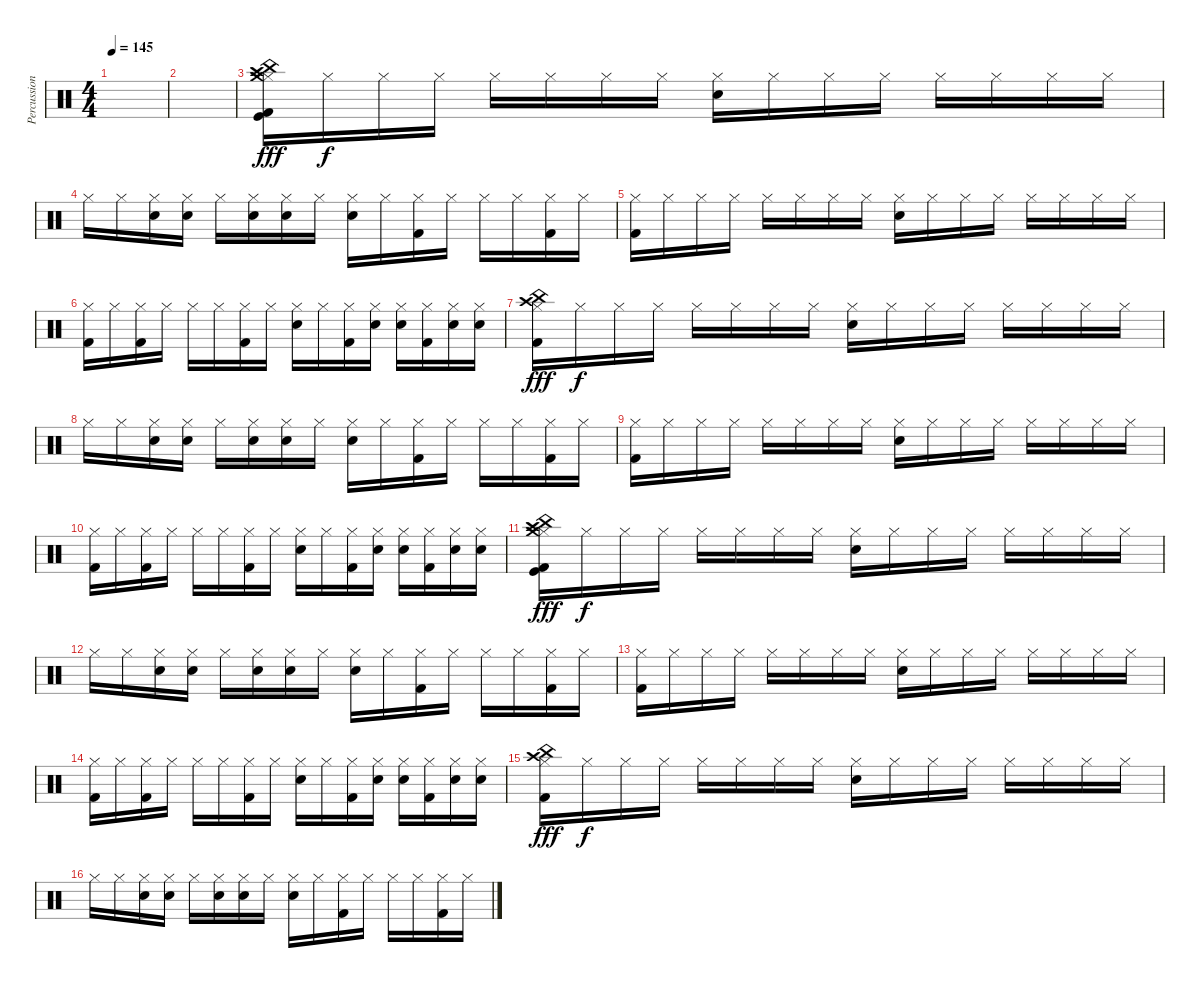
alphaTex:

\track ("Percussions" "Percussion") {instrument percussion}
\staff {score}
\articulation defaults
\ts (4 4)
\tempo 145
\clef neutral
\ks c
|
|
("Crash high (hit)" "Hi-Hat (closed)" "Crash medium (hit)" "China (hit)" "Kick (hit)" "Kick (hit) 2").16{dy fff volume 16} "Hi-Hat (closed)".16{dy f} "Hi-Hat (closed)".16 "Hi-Hat (closed)".16 "Hi-Hat (closed)".16 "Hi-Hat (closed)".16 "Hi-Hat (closed)".16 "Hi-Hat (closed)".16 ("Hi-Hat (closed)" "Snare (hit) 2").16 "Hi-Hat (closed)".16 "Hi-Hat (closed)".16 "Hi-Hat (closed)".16 "Hi-Hat (closed)".16 "Hi-Hat (closed)".16 "Hi-Hat (closed)".16 "Hi-Hat (closed)".16 |
"Hi-Hat (closed)".16 "Hi-Hat (closed)".16 ("Hi-Hat (closed)" "Snare (hit) 2").16 ("Hi-Hat (closed)" "Snare (hit) 2").16 "Hi-Hat (closed)".16 ("Hi-Hat (closed)" "Snare (hit) 2").16 ("Hi-Hat (closed)" "Snare (hit) 2").16 "Hi-Hat (closed)".16 ("Hi-Hat (closed)" "Snare (hit) 2").16 "Hi-Hat (closed)".16 ("Hi-Hat (closed)" "Kick (hit) 2").16 "Hi-Hat (closed)".16 "Hi-Hat (closed)".16 "Hi-Hat (closed)".16 ("Hi-Hat (closed)" "Kick (hit) 2").16 "Hi-Hat (closed)".16 |
("Hi-Hat (closed)" "Kick (hit) 2").16 "Hi-Hat (closed)".16 "Hi-Hat (closed)".16 "Hi-Hat (closed)".16 "Hi-Hat (closed)".16 "Hi-Hat (closed)".16 "Hi-Hat (closed)".16 "Hi-Hat (closed)".16 ("Hi-Hat (closed)" "Snare (hit) 2").16 "Hi-Hat (closed)".16 "Hi-Hat (closed)".16 "Hi-Hat (closed)".16 "Hi-Hat (closed)".16 "Hi-Hat (closed)".16 "Hi-Hat (closed)".16 "Hi-Hat (closed)".16 |
("Hi-Hat (closed)" "Kick (hit) 2").16 "Hi-Hat (closed)".16 ("Hi-Hat (closed)" "Kick (hit) 2").16 "Hi-Hat (closed)".16 "Hi-Hat (closed)".16 "Hi-Hat (closed)".16 ("Hi-Hat (closed)" "Kick (hit) 2").16 "Hi-Hat (closed)".16 ("Hi-Hat (closed)" "Snare (hit) 2").16 "Hi-Hat (closed)".16 ("Hi-Hat (closed)" "Kick (hit) 2").16 ("Hi-Hat (closed)" "Snare (hit) 2").16 ("Hi-Hat (closed)" "Snare (hit) 2").16 ("Hi-Hat (closed)" "Kick (hit) 2").16 ("Hi-Hat (closed)" "Snare (hit) 2").16 ("Hi-Hat (closed)" "Snare (hit) 2").16 |
("Crash high (hit)" "Hi-Hat (closed)" "China (hit)" "Kick (hit) 2").16{dy fff} "Hi-Hat (closed)".16{dy f} "Hi-Hat (closed)".16 "Hi-Hat (closed)".16 "Hi-Hat (closed)".16 "Hi-Hat (closed)".16 "Hi-Hat (closed)".16 "Hi-Hat (closed)".16 ("Hi-Hat (closed)" "Snare (hit) 2").16 "Hi-Hat (closed)".16 "Hi-Hat (closed)".16 "Hi-Hat (closed)".16 "Hi-Hat (closed)".16 "Hi-Hat (closed)".16 "Hi-Hat (closed)".16 "Hi-Hat (closed)".16 |
"Hi-Hat (closed)".16 "Hi-Hat (closed)".16 ("Hi-Hat (closed)" "Snare (hit) 2").16 ("Hi-Hat (closed)" "Snare (hit) 2").16 "Hi-Hat (closed)".16 ("Hi-Hat (closed)" "Snare (hit) 2").16 ("Hi-Hat (closed)" "Snare (hit) 2").16 "Hi-Hat (closed)".16 ("Hi-Hat (closed)" "Snare (hit) 2").16 "Hi-Hat (closed)".16 ("Hi-Hat (closed)" "Kick (hit) 2").16 "Hi-Hat (closed)".16 "Hi-Hat (closed)".16 "Hi-Hat (closed)".16 ("Hi-Hat (closed)" "Kick (hit) 2").16 "Hi-Hat (closed)".16 |
("Hi-Hat (closed)" "Kick (hit) 2").16 "Hi-Hat (closed)".16 "Hi-Hat (closed)".16 "Hi-Hat (closed)".16 "Hi-Hat (closed)".16 "Hi-Hat (closed)".16 "Hi-Hat (closed)".16 "Hi-Hat (closed)".16 ("Hi-Hat (closed)" "Snare (hit) 2").16 "Hi-Hat (closed)".16 "Hi-Hat (closed)".16 "Hi-Hat (closed)".16 "Hi-Hat (closed)".16 "Hi-Hat (closed)".16 "Hi-Hat (closed)".16 "Hi-Hat (closed)".16 |
("Hi-Hat (closed)" "Kick (hit) 2").16 "Hi-Hat (closed)".16 ("Hi-Hat (closed)" "Kick (hit) 2").16 "Hi-Hat (closed)".16 "Hi-Hat (closed)".16 "Hi-Hat (closed)".16 ("Hi-Hat (closed)" "Kick (hit) 2").16 "Hi-Hat (closed)".16 ("Hi-Hat (closed)" "Snare (hit) 2").16 "Hi-Hat (closed)".16 ("Hi-Hat (closed)" "Kick (hit) 2").16 ("Hi-Hat (closed)" "Snare (hit) 2").16 ("Hi-Hat (closed)" "Snare (hit) 2").16 ("Hi-Hat (closed)" "Kick (hit) 2").16 ("Hi-Hat (closed)" "Snare (hit) 2").16 ("Hi-Hat (closed)" "Snare (hit) 2").16 |
("Crash high (hit)" "Hi-Hat (closed)" "Crash medium (hit)" "China (hit)" "Kick (hit)" "Kick (hit) 2").16{dy fff volume 16} "Hi-Hat (closed)".16{dy f} "Hi-Hat (closed)".16 "Hi-Hat (closed)".16 "Hi-Hat (closed)".16 "Hi-Hat (closed)".16 "Hi-Hat (closed)".16 "Hi-Hat (closed)".16 ("Hi-Hat (closed)" "Snare (hit) 2").16 "Hi-Hat (closed)".16 "Hi-Hat (closed)".16 "Hi-Hat (closed)".16 "Hi-Hat (closed)".16 "Hi-Hat (closed)".16 "Hi-Hat (closed)".16 "Hi-Hat (closed)".16 |
"Hi-Hat (closed)".16 "Hi-Hat (closed)".16 ("Hi-Hat (closed)" "Snare (hit) 2").16 ("Hi-Hat (closed)" "Snare (hit) 2").16 "Hi-Hat (closed)".16 ("Hi-Hat (closed)" "Snare (hit) 2").16 ("Hi-Hat (closed)" "Snare (hit) 2").16 "Hi-Hat (closed)".16 ("Hi-Hat (closed)" "Snare (hit) 2").16 "Hi-Hat (closed)".16 ("Hi-Hat (closed)" "Kick (hit) 2").16 "Hi-Hat (closed)".16 "Hi-Hat (closed)".16 "Hi-Hat (closed)".16 ("Hi-Hat (closed)" "Kick (hit) 2").16 "Hi-Hat (closed)".16 |
("Hi-Hat (closed)" "Kick (hit) 2").16 "Hi-Hat (closed)".16 "Hi-Hat (closed)".16 "Hi-Hat (closed)".16 "Hi-Hat (closed)".16 "Hi-Hat (closed)".16 "Hi-Hat (closed)".16 "Hi-Hat (closed)".16 ("Hi-Hat (closed)" "Snare (hit) 2").16 "Hi-Hat (closed)".16 "Hi-Hat (closed)".16 "Hi-Hat (closed)".16 "Hi-Hat (closed)".16 "Hi-Hat (closed)".16 "Hi-Hat (closed)".16 "Hi-Hat (closed)".16 |
("Hi-Hat (closed)" "Kick (hit) 2").16 "Hi-Hat (closed)".16 ("Hi-Hat (closed)" "Kick (hit) 2").16 "Hi-Hat (closed)".16 "Hi-Hat (closed)".16 "Hi-Hat (closed)".16 ("Hi-Hat (closed)" "Kick (hit) 2").16 "Hi-Hat (closed)".16 ("Hi-Hat (closed)" "Snare (hit) 2").16 "Hi-Hat (closed)".16 ("Hi-Hat (closed)" "Kick (hit) 2").16 ("Hi-Hat (closed)" "Snare (hit) 2").16 ("Hi-Hat (closed)" "Snare (hit) 2").16 ("Hi-Hat (closed)" "Kick (hit) 2").16 ("Hi-Hat (closed)" "Snare (hit) 2").16 ("Hi-Hat (closed)" "Snare (hit) 2").16 |
("Crash high (hit)" "Hi-Hat (closed)" "China (hit)" "Kick (hit) 2").16{dy fff} "Hi-Hat (closed)".16{dy f} "Hi-Hat (closed)".16 "Hi-Hat (closed)".16 "Hi-Hat (closed)".16 "Hi-Hat (closed)".16 "Hi-Hat (closed)".16 "Hi-Hat (closed)".16 ("Hi-Hat (closed)" "Snare (hit) 2").16 "Hi-Hat (closed)".16 "Hi-Hat (closed)".16 "Hi-Hat (closed)".16 "Hi-Hat (closed)".16 "Hi-Hat (closed)".16 "Hi-Hat (closed)".16 "Hi-Hat (closed)".16 |
"Hi-Hat (closed)".16 "Hi-Hat (closed)".16 ("Hi-Hat (closed)" "Snare (hit) 2").16 ("Hi-Hat (closed)" "Snare (hit) 2").16 "Hi-Hat (closed)".16 ("Hi-Hat (closed)" "Snare (hit) 2").16 ("Hi-Hat (closed)" "Snare (hit) 2").16 "Hi-Hat (closed)".16 ("Hi-Hat (closed)" "Snare (hit) 2").16 "Hi-Hat (closed)".16 ("Hi-Hat (closed)" "Kick (hit) 2").16 "Hi-Hat (closed)".16 "Hi-Hat (closed)".16 "Hi-Hat (closed)".16 ("Hi-Hat (closed)" "Kick (hit) 2").16 "Hi-Hat (closed)".16
